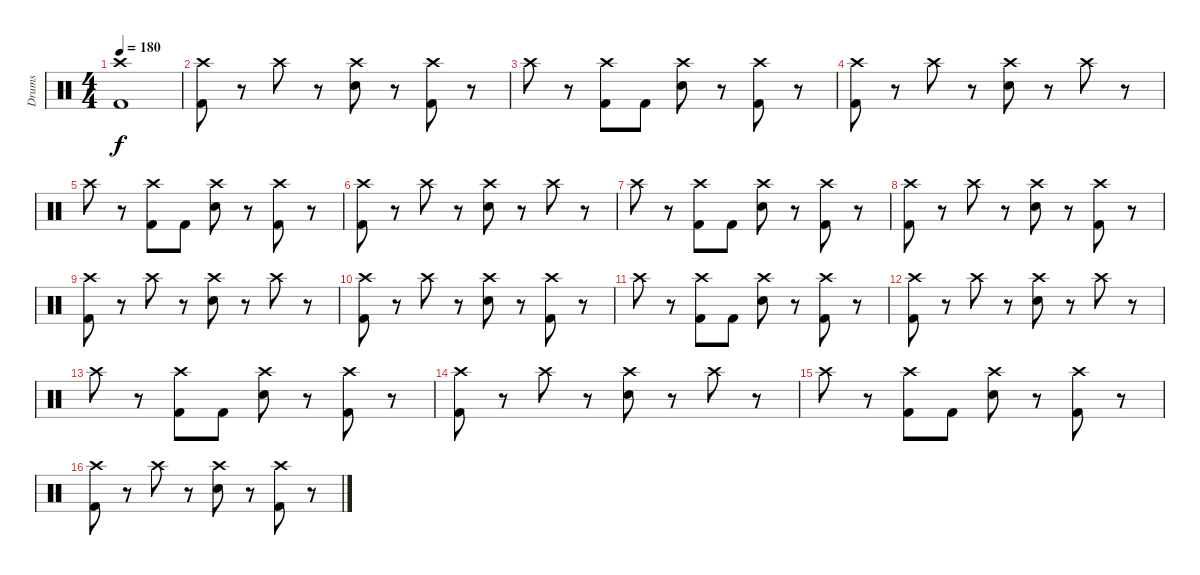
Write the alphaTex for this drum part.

\track ("Drums" "Drums") {instrument percussion}
\staff {score}
\articulation defaults
\ts (4 4)
\tempo 180
\clef neutral
\ks c
("Crash high (hit)" "Kick (hit) 2").1{dy f} |
("Crash high (hit)" "Kick (hit) 2").8 r.8 "Crash high (hit)".8 r.8 ("Crash high (hit)" "Snare (hit) 2").8 r.8 ("Crash high (hit)" "Kick (hit) 2").8 r.8 |
"Crash high (hit)".8 r.8 ("Crash high (hit)" "Kick (hit) 2").8 "Kick (hit) 2".8 ("Crash high (hit)" "Snare (hit) 2").8 r.8 ("Crash high (hit)" "Kick (hit) 2").8 r.8 |
("Crash high (hit)" "Kick (hit) 2").8 r.8 "Crash high (hit)".8 r.8 ("Crash high (hit)" "Snare (hit) 2").8 r.8 "Crash high (hit)".8 r.8 |
"Crash high (hit)".8 r.8 ("Crash high (hit)" "Kick (hit) 2").8 "Kick (hit) 2".8 ("Crash high (hit)" "Snare (hit) 2").8 r.8 ("Crash high (hit)" "Kick (hit) 2").8 r.8 |
("Crash high (hit)" "Kick (hit) 2").8 r.8 "Crash high (hit)".8 r.8 ("Crash high (hit)" "Snare (hit) 2").8 r.8 "Crash high (hit)".8 r.8 |
"Crash high (hit)".8 r.8 ("Crash high (hit)" "Kick (hit) 2").8 "Kick (hit) 2".8 ("Crash high (hit)" "Snare (hit) 2").8 r.8 ("Crash high (hit)" "Kick (hit) 2").8 r.8 |
("Crash high (hit)" "Kick (hit) 2").8 r.8 "Crash high (hit)".8 r.8 ("Crash high (hit)" "Snare (hit) 2").8 r.8 ("Crash high (hit)" "Kick (hit) 2").8 r.8 |
("Crash high (hit)" "Kick (hit) 2").8 r.8 "Crash high (hit)".8 r.8 ("Crash high (hit)" "Snare (hit) 2").8 r.8 "Crash high (hit)".8 r.8 |
("Crash high (hit)" "Kick (hit) 2").8 r.8 "Crash high (hit)".8 r.8 ("Crash high (hit)" "Snare (hit) 2").8 r.8 ("Crash high (hit)" "Kick (hit) 2").8 r.8 |
"Crash high (hit)".8 r.8 ("Crash high (hit)" "Kick (hit) 2").8 "Kick (hit) 2".8 ("Crash high (hit)" "Snare (hit) 2").8 r.8 ("Crash high (hit)" "Kick (hit) 2").8 r.8 |
("Crash high (hit)" "Kick (hit) 2").8 r.8 "Crash high (hit)".8 r.8 ("Crash high (hit)" "Snare (hit) 2").8 r.8 "Crash high (hit)".8 r.8 |
"Crash high (hit)".8 r.8 ("Crash high (hit)" "Kick (hit) 2").8 "Kick (hit) 2".8 ("Crash high (hit)" "Snare (hit) 2").8 r.8 ("Crash high (hit)" "Kick (hit) 2").8 r.8 |
("Crash high (hit)" "Kick (hit) 2").8 r.8 "Crash high (hit)".8 r.8 ("Crash high (hit)" "Snare (hit) 2").8 r.8 "Crash high (hit)".8 r.8 |
"Crash high (hit)".8 r.8 ("Crash high (hit)" "Kick (hit) 2").8 "Kick (hit) 2".8 ("Crash high (hit)" "Snare (hit) 2").8 r.8 ("Crash high (hit)" "Kick (hit) 2").8 r.8 |
("Crash high (hit)" "Kick (hit) 2").8 r.8 "Crash high (hit)".8 r.8 ("Crash high (hit)" "Snare (hit) 2").8 r.8 ("Crash high (hit)" "Kick (hit) 2").8 r.8
